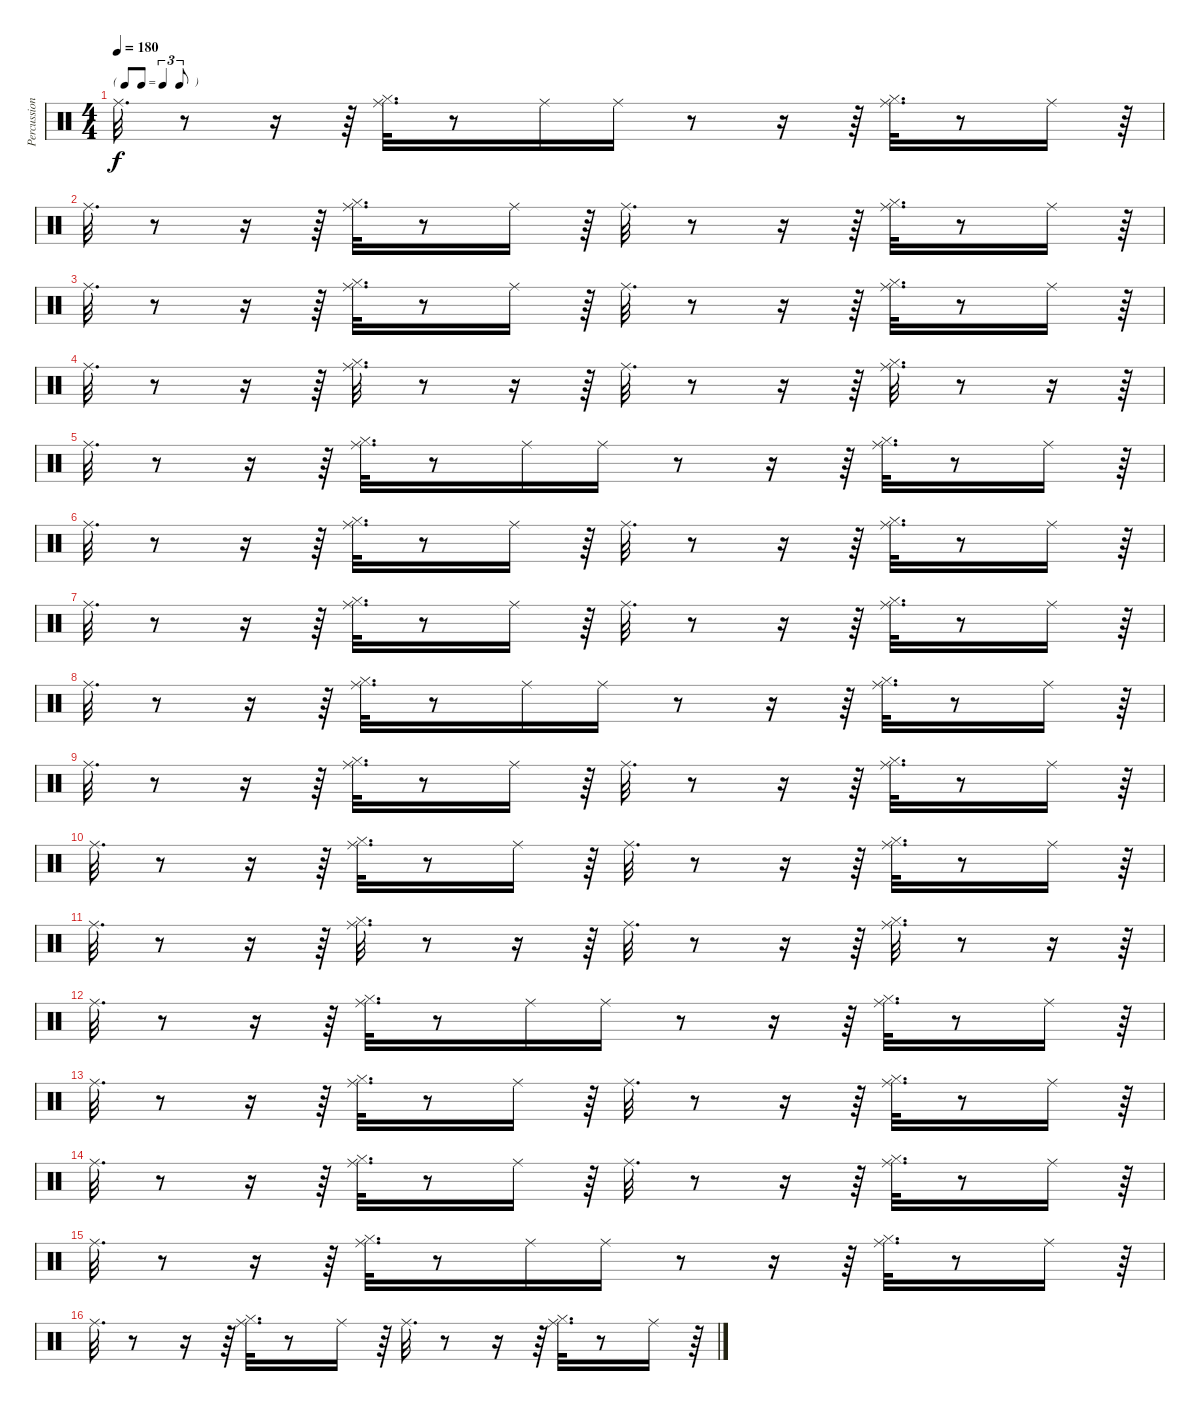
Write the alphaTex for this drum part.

\track ("Percussions" "Percussion") {instrument percussion}
\staff {score}
\articulation defaults
\ts (4 4)
\tf triplet8th
\tempo 180
\clef neutral
\ks c "Ride (middle)".32{d dy f}
r.8 r.16 r.64 ("Hi-Hat (closed)" "Ride (middle)").32{d} r.8 "Ride (middle)".16 "Ride (middle)".16 r.8 r.16 r.64 ("Hi-Hat (closed)" "Ride (middle)").32{d} r.8 "Ride (middle)".16 r.64 |
"Ride (middle)".32{d} r.8 r.16 r.64 ("Hi-Hat (closed)" "Ride (middle)").32{d} r.8 "Ride (middle)".16 r.64 "Ride (middle)".32{d} r.8 r.16 r.64 ("Hi-Hat (closed)" "Ride (middle)").32{d} r.8 "Ride (middle)".16 r.64 |
"Ride (middle)".32{d} r.8 r.16 r.64 ("Hi-Hat (closed)" "Ride (middle)").32{d} r.8 "Ride (middle)".16 r.64 "Ride (middle)".32{d} r.8 r.16 r.64 ("Hi-Hat (closed)" "Ride (middle)").32{d} r.8 "Ride (middle)".16 r.64 |
"Ride (middle)".32{d} r.8 r.16 r.64 ("Hi-Hat (closed)" "Ride (middle)").32{d} r.8 r.16 r.64 "Ride (middle)".32{d} r.8 r.16 r.64 ("Hi-Hat (closed)" "Ride (middle)").32{d} r.8 r.16 r.64 |
"Ride (middle)".32{d} r.8 r.16 r.64 ("Hi-Hat (closed)" "Ride (middle)").32{d} r.8 "Ride (middle)".16 "Ride (middle)".16 r.8 r.16 r.64 ("Hi-Hat (closed)" "Ride (middle)").32{d} r.8 "Ride (middle)".16 r.64 |
"Ride (middle)".32{d} r.8 r.16 r.64 ("Hi-Hat (closed)" "Ride (middle)").32{d} r.8 "Ride (middle)".16 r.64 "Ride (middle)".32{d} r.8 r.16 r.64 ("Hi-Hat (closed)" "Ride (middle)").32{d} r.8 "Ride (middle)".16 r.64 |
"Ride (middle)".32{d} r.8 r.16 r.64 ("Hi-Hat (closed)" "Ride (middle)").32{d} r.8 "Ride (middle)".16 r.64 "Ride (middle)".32{d} r.8 r.16 r.64 ("Hi-Hat (closed)" "Ride (middle)").32{d} r.8 "Ride (middle)".16 r.64 |
"Ride (middle)".32{d} r.8 r.16 r.64 ("Hi-Hat (closed)" "Ride (middle)").32{d} r.8 "Ride (middle)".16 "Ride (middle)".16 r.8 r.16 r.64 ("Hi-Hat (closed)" "Ride (middle)").32{d} r.8 "Ride (middle)".16 r.64 |
"Ride (middle)".32{d} r.8 r.16 r.64 ("Hi-Hat (closed)" "Ride (middle)").32{d} r.8 "Ride (middle)".16 r.64 "Ride (middle)".32{d} r.8 r.16 r.64 ("Hi-Hat (closed)" "Ride (middle)").32{d} r.8 "Ride (middle)".16 r.64 |
"Ride (middle)".32{d} r.8 r.16 r.64 ("Hi-Hat (closed)" "Ride (middle)").32{d} r.8 "Ride (middle)".16 r.64 "Ride (middle)".32{d} r.8 r.16 r.64 ("Hi-Hat (closed)" "Ride (middle)").32{d} r.8 "Ride (middle)".16 r.64 |
"Ride (middle)".32{d} r.8 r.16 r.64 ("Hi-Hat (closed)" "Ride (middle)").32{d} r.8 r.16 r.64 "Ride (middle)".32{d} r.8 r.16 r.64 ("Hi-Hat (closed)" "Ride (middle)").32{d} r.8 r.16 r.64 |
"Ride (middle)".32{d} r.8 r.16 r.64 ("Hi-Hat (closed)" "Ride (middle)").32{d} r.8 "Ride (middle)".16 "Ride (middle)".16 r.8 r.16 r.64 ("Hi-Hat (closed)" "Ride (middle)").32{d} r.8 "Ride (middle)".16 r.64 |
"Ride (middle)".32{d} r.8 r.16 r.64 ("Hi-Hat (closed)" "Ride (middle)").32{d} r.8 "Ride (middle)".16 r.64 "Ride (middle)".32{d} r.8 r.16 r.64 ("Hi-Hat (closed)" "Ride (middle)").32{d} r.8 "Ride (middle)".16 r.64 |
"Ride (middle)".32{d} r.8 r.16 r.64 ("Hi-Hat (closed)" "Ride (middle)").32{d} r.8 "Ride (middle)".16 r.64 "Ride (middle)".32{d} r.8 r.16 r.64 ("Hi-Hat (closed)" "Ride (middle)").32{d} r.8 "Ride (middle)".16 r.64 |
"Ride (middle)".32{d} r.8 r.16 r.64 ("Hi-Hat (closed)" "Ride (middle)").32{d} r.8 "Ride (middle)".16 "Ride (middle)".16 r.8 r.16 r.64 ("Hi-Hat (closed)" "Ride (middle)").32{d} r.8 "Ride (middle)".16 r.64 |
"Ride (middle)".32{d} r.8 r.16 r.64 ("Hi-Hat (closed)" "Ride (middle)").32{d} r.8 "Ride (middle)".16 r.64 "Ride (middle)".32{d} r.8 r.16 r.64 ("Hi-Hat (closed)" "Ride (middle)").32{d} r.8 "Ride (middle)".16 r.64
